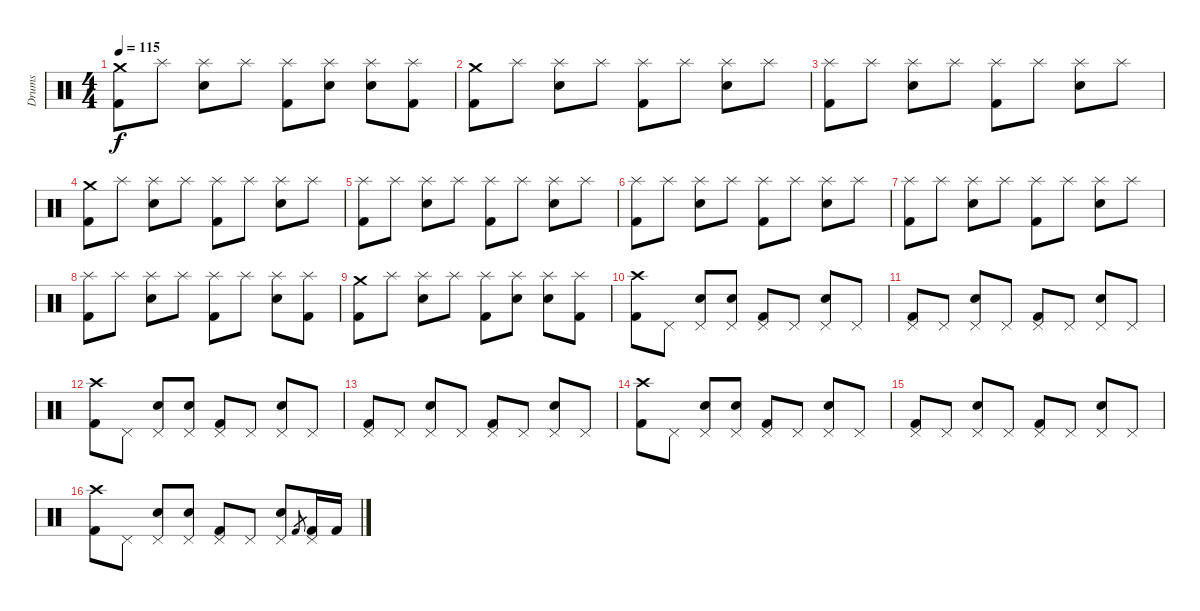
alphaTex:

\track ("Drums" "Drums") {instrument percussion}
\staff {score}
\articulation defaults
\ts (4 4)
\tempo 115
\clef neutral
\ks c
("Crash medium (hit)" "Kick (hit) 2").8{dy f} "Splash (hit)".8 ("Splash (hit)" "Snare (hit) 2").8 "Splash (hit)".8 ("Splash (hit)" "Kick (hit) 2").8 ("Splash (hit)" "Snare (hit) 2").8 ("Splash (hit)" "Snare (hit) 2").8 ("Splash (hit)" "Kick (hit) 2").8 |
("Crash medium (hit)" "Kick (hit) 2").8 "Splash (hit)".8 ("Splash (hit)" "Snare (hit) 2").8 "Splash (hit)".8 ("Splash (hit)" "Kick (hit) 2").8 "Splash (hit)".8 ("Splash (hit)" "Snare (hit) 2").8 "Splash (hit)".8 |
("Splash (hit)" "Kick (hit) 2").8 "Splash (hit)".8 ("Splash (hit)" "Snare (hit) 2").8 "Splash (hit)".8 ("Splash (hit)" "Kick (hit) 2").8 "Splash (hit)".8 ("Splash (hit)" "Snare (hit) 2").8 "Splash (hit)".8 |
("Crash medium (hit)" "Kick (hit) 2").8 "Splash (hit)".8 ("Splash (hit)" "Snare (hit) 2").8 "Splash (hit)".8 ("Splash (hit)" "Kick (hit) 2").8 "Splash (hit)".8 ("Splash (hit)" "Snare (hit) 2").8 "Splash (hit)".8 |
("Splash (hit)" "Kick (hit) 2").8 "Splash (hit)".8 ("Splash (hit)" "Snare (hit) 2").8 "Splash (hit)".8 ("Splash (hit)" "Kick (hit) 2").8 "Splash (hit)".8 ("Splash (hit)" "Snare (hit) 2").8 "Splash (hit)".8 |
("Splash (hit)" "Kick (hit) 2").8 "Splash (hit)".8 ("Splash (hit)" "Snare (hit) 2").8 "Splash (hit)".8 ("Splash (hit)" "Kick (hit) 2").8 "Splash (hit)".8 ("Splash (hit)" "Snare (hit) 2").8 "Splash (hit)".8 |
("Splash (hit)" "Kick (hit) 2").8 "Splash (hit)".8 ("Splash (hit)" "Snare (hit) 2").8 "Splash (hit)".8 ("Splash (hit)" "Kick (hit) 2").8 "Splash (hit)".8 ("Splash (hit)" "Snare (hit) 2").8 "Splash (hit)".8 |
("Splash (hit)" "Kick (hit) 2").8 "Splash (hit)".8 ("Splash (hit)" "Snare (hit) 2").8 "Splash (hit)".8 ("Splash (hit)" "Kick (hit) 2").8 "Splash (hit)".8 ("Splash (hit)" "Snare (hit) 2").8 ("Splash (hit)" "Kick (hit) 2").8 |
("Crash medium (hit)" "Kick (hit) 2").8 "Splash (hit)".8 ("Splash (hit)" "Snare (hit) 2").8 "Splash (hit)".8 ("Splash (hit)" "Kick (hit) 2").8 ("Splash (hit)" "Snare (hit) 2").8 ("Splash (hit)" "Snare (hit) 2").8 ("Splash (hit)" "Kick (hit) 2").8 |
("Crash high (hit)" "Kick (hit) 2").8 "Pedal Hi-Hat (hit)".8 ("Pedal Hi-Hat (hit)" "Snare (hit) 2").8 ("Pedal Hi-Hat (hit)" "Snare (hit) 2").8 ("Pedal Hi-Hat (hit)" "Kick (hit) 2").8 "Pedal Hi-Hat (hit)".8 ("Pedal Hi-Hat (hit)" "Snare (hit) 2").8 "Pedal Hi-Hat (hit)".8 |
("Pedal Hi-Hat (hit)" "Kick (hit) 2").8 "Pedal Hi-Hat (hit)".8 ("Pedal Hi-Hat (hit)" "Snare (hit) 2").8 "Pedal Hi-Hat (hit)".8 ("Pedal Hi-Hat (hit)" "Kick (hit) 2").8 "Pedal Hi-Hat (hit)".8 ("Pedal Hi-Hat (hit)" "Snare (hit) 2").8 "Pedal Hi-Hat (hit)".8 |
("Crash high (hit)" "Kick (hit) 2").8 "Pedal Hi-Hat (hit)".8 ("Pedal Hi-Hat (hit)" "Snare (hit) 2").8 ("Pedal Hi-Hat (hit)" "Snare (hit) 2").8 ("Pedal Hi-Hat (hit)" "Kick (hit) 2").8 "Pedal Hi-Hat (hit)".8 ("Pedal Hi-Hat (hit)" "Snare (hit) 2").8 "Pedal Hi-Hat (hit)".8 |
("Pedal Hi-Hat (hit)" "Kick (hit) 2").8 "Pedal Hi-Hat (hit)".8 ("Pedal Hi-Hat (hit)" "Snare (hit) 2").8 "Pedal Hi-Hat (hit)".8 ("Pedal Hi-Hat (hit)" "Kick (hit) 2").8 "Pedal Hi-Hat (hit)".8 ("Pedal Hi-Hat (hit)" "Snare (hit) 2").8 "Pedal Hi-Hat (hit)".8 |
("Crash high (hit)" "Kick (hit) 2").8 "Pedal Hi-Hat (hit)".8 ("Pedal Hi-Hat (hit)" "Snare (hit) 2").8 ("Pedal Hi-Hat (hit)" "Snare (hit) 2").8 ("Pedal Hi-Hat (hit)" "Kick (hit) 2").8 "Pedal Hi-Hat (hit)".8 ("Pedal Hi-Hat (hit)" "Snare (hit) 2").8 "Pedal Hi-Hat (hit)".8 |
("Pedal Hi-Hat (hit)" "Kick (hit) 2").8 "Pedal Hi-Hat (hit)".8 ("Pedal Hi-Hat (hit)" "Snare (hit) 2").8 "Pedal Hi-Hat (hit)".8 ("Pedal Hi-Hat (hit)" "Kick (hit) 2").8 "Pedal Hi-Hat (hit)".8 ("Pedal Hi-Hat (hit)" "Snare (hit) 2").8 "Pedal Hi-Hat (hit)".8 |
("Crash high (hit)" "Kick (hit) 2").8 "Pedal Hi-Hat (hit)".8 ("Pedal Hi-Hat (hit)" "Snare (hit) 2").8 ("Pedal Hi-Hat (hit)" "Snare (hit) 2").8 ("Pedal Hi-Hat (hit)" "Kick (hit) 2").8 "Pedal Hi-Hat (hit)".8 ("Pedal Hi-Hat (hit)" "Snare (hit) 2").8 "Kick (hit) 2".8{gr} ("Pedal Hi-Hat (hit)" "Kick (hit) 2").16 "Kick (hit) 2".16
